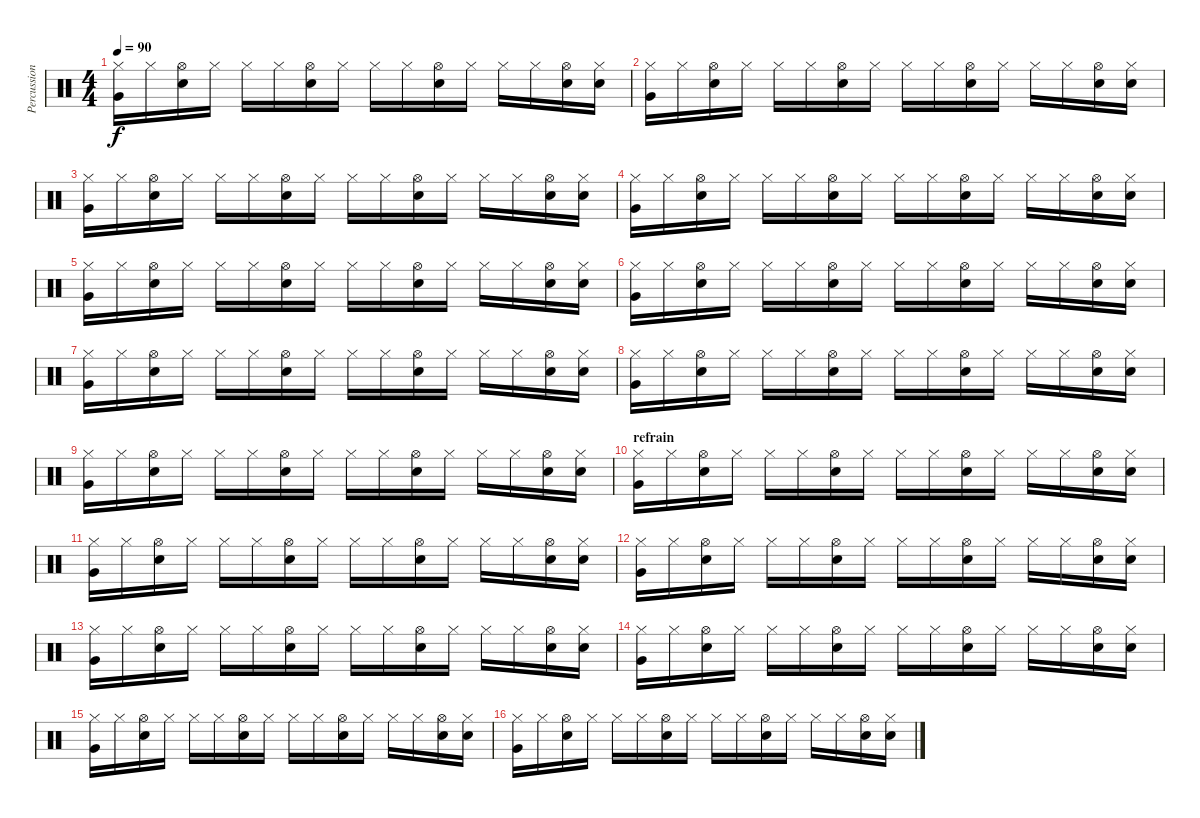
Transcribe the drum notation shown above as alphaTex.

\track ("Percussions" "Percussion") {instrument percussion}
\staff {score}
\articulation defaults
\ts (4 4)
\tempo 90
\clef neutral
\ks aminor
("Hi-Hat (closed)" "Very Low Tom (hit)").16{dy f} "Hi-Hat (closed)".16 ("Snare (hit) 2" "Hi-Hat (open)").16 "Hi-Hat (closed)".16 "Hi-Hat (closed)".16 "Hi-Hat (closed)".16 ("Snare (hit) 2" "Hi-Hat (open)").16 "Hi-Hat (closed)".16 "Hi-Hat (closed)".16 "Hi-Hat (closed)".16 ("Snare (hit) 2" "Hi-Hat (open)").16 "Hi-Hat (closed)".16 "Hi-Hat (closed)".16 "Hi-Hat (closed)".16 ("Snare (hit) 2" "Hi-Hat (open)").16 ("Snare (hit) 2" "Hi-Hat (closed)").16 |
("Hi-Hat (closed)" "Very Low Tom (hit)").16 "Hi-Hat (closed)".16 ("Snare (hit) 2" "Hi-Hat (open)").16 "Hi-Hat (closed)".16 "Hi-Hat (closed)".16 "Hi-Hat (closed)".16 ("Snare (hit) 2" "Hi-Hat (open)").16 "Hi-Hat (closed)".16 "Hi-Hat (closed)".16 "Hi-Hat (closed)".16 ("Snare (hit) 2" "Hi-Hat (open)").16 "Hi-Hat (closed)".16 "Hi-Hat (closed)".16 "Hi-Hat (closed)".16 ("Snare (hit) 2" "Hi-Hat (open)").16 ("Snare (hit) 2" "Hi-Hat (closed)").16 |
("Hi-Hat (closed)" "Very Low Tom (hit)").16 "Hi-Hat (closed)".16 ("Snare (hit) 2" "Hi-Hat (open)").16 "Hi-Hat (closed)".16 "Hi-Hat (closed)".16 "Hi-Hat (closed)".16 ("Snare (hit) 2" "Hi-Hat (open)").16 "Hi-Hat (closed)".16 "Hi-Hat (closed)".16 "Hi-Hat (closed)".16 ("Snare (hit) 2" "Hi-Hat (open)").16 "Hi-Hat (closed)".16 "Hi-Hat (closed)".16 "Hi-Hat (closed)".16 ("Snare (hit) 2" "Hi-Hat (open)").16 ("Snare (hit) 2" "Hi-Hat (closed)").16 |
("Hi-Hat (closed)" "Very Low Tom (hit)").16 "Hi-Hat (closed)".16 ("Snare (hit) 2" "Hi-Hat (open)").16 "Hi-Hat (closed)".16 "Hi-Hat (closed)".16 "Hi-Hat (closed)".16 ("Snare (hit) 2" "Hi-Hat (open)").16 "Hi-Hat (closed)".16 "Hi-Hat (closed)".16 "Hi-Hat (closed)".16 ("Snare (hit) 2" "Hi-Hat (open)").16 "Hi-Hat (closed)".16 "Hi-Hat (closed)".16 "Hi-Hat (closed)".16 ("Snare (hit) 2" "Hi-Hat (open)").16 ("Snare (hit) 2" "Hi-Hat (closed)").16 |
("Hi-Hat (closed)" "Very Low Tom (hit)").16 "Hi-Hat (closed)".16 ("Snare (hit) 2" "Hi-Hat (open)").16 "Hi-Hat (closed)".16 "Hi-Hat (closed)".16 "Hi-Hat (closed)".16 ("Snare (hit) 2" "Hi-Hat (open)").16 "Hi-Hat (closed)".16 "Hi-Hat (closed)".16 "Hi-Hat (closed)".16 ("Snare (hit) 2" "Hi-Hat (open)").16 "Hi-Hat (closed)".16 "Hi-Hat (closed)".16 "Hi-Hat (closed)".16 ("Snare (hit) 2" "Hi-Hat (open)").16 ("Snare (hit) 2" "Hi-Hat (closed)").16 |
("Hi-Hat (closed)" "Very Low Tom (hit)").16 "Hi-Hat (closed)".16 ("Snare (hit) 2" "Hi-Hat (open)").16 "Hi-Hat (closed)".16 "Hi-Hat (closed)".16 "Hi-Hat (closed)".16 ("Snare (hit) 2" "Hi-Hat (open)").16 "Hi-Hat (closed)".16 "Hi-Hat (closed)".16 "Hi-Hat (closed)".16 ("Snare (hit) 2" "Hi-Hat (open)").16 "Hi-Hat (closed)".16 "Hi-Hat (closed)".16 "Hi-Hat (closed)".16 ("Snare (hit) 2" "Hi-Hat (open)").16 ("Snare (hit) 2" "Hi-Hat (closed)").16 |
("Hi-Hat (closed)" "Very Low Tom (hit)").16 "Hi-Hat (closed)".16 ("Snare (hit) 2" "Hi-Hat (open)").16 "Hi-Hat (closed)".16 "Hi-Hat (closed)".16 "Hi-Hat (closed)".16 ("Snare (hit) 2" "Hi-Hat (open)").16 "Hi-Hat (closed)".16 "Hi-Hat (closed)".16 "Hi-Hat (closed)".16 ("Snare (hit) 2" "Hi-Hat (open)").16 "Hi-Hat (closed)".16 "Hi-Hat (closed)".16 "Hi-Hat (closed)".16 ("Snare (hit) 2" "Hi-Hat (open)").16 ("Snare (hit) 2" "Hi-Hat (closed)").16 |
("Hi-Hat (closed)" "Very Low Tom (hit)").16 "Hi-Hat (closed)".16 ("Snare (hit) 2" "Hi-Hat (open)").16 "Hi-Hat (closed)".16 "Hi-Hat (closed)".16 "Hi-Hat (closed)".16 ("Snare (hit) 2" "Hi-Hat (open)").16 "Hi-Hat (closed)".16 "Hi-Hat (closed)".16 "Hi-Hat (closed)".16 ("Snare (hit) 2" "Hi-Hat (open)").16 "Hi-Hat (closed)".16 "Hi-Hat (closed)".16 "Hi-Hat (closed)".16 ("Snare (hit) 2" "Hi-Hat (open)").16 ("Snare (hit) 2" "Hi-Hat (closed)").16 |
("Hi-Hat (closed)" "Very Low Tom (hit)").16 "Hi-Hat (closed)".16 ("Snare (hit) 2" "Hi-Hat (open)").16 "Hi-Hat (closed)".16 "Hi-Hat (closed)".16 "Hi-Hat (closed)".16 ("Snare (hit) 2" "Hi-Hat (open)").16 "Hi-Hat (closed)".16 "Hi-Hat (closed)".16 "Hi-Hat (closed)".16 ("Snare (hit) 2" "Hi-Hat (open)").16 "Hi-Hat (closed)".16 "Hi-Hat (closed)".16 "Hi-Hat (closed)".16 ("Snare (hit) 2" "Hi-Hat (open)").16 ("Snare (hit) 2" "Hi-Hat (closed)").16 |
\section ("" "refrain")
("Hi-Hat (closed)" "Very Low Tom (hit)").16 "Hi-Hat (closed)".16 ("Snare (hit) 2" "Hi-Hat (open)").16 "Hi-Hat (closed)".16 "Hi-Hat (closed)".16 "Hi-Hat (closed)".16 ("Snare (hit) 2" "Hi-Hat (open)").16 "Hi-Hat (closed)".16 "Hi-Hat (closed)".16 "Hi-Hat (closed)".16 ("Snare (hit) 2" "Hi-Hat (open)").16 "Hi-Hat (closed)".16 "Hi-Hat (closed)".16 "Hi-Hat (closed)".16 ("Snare (hit) 2" "Hi-Hat (open)").16 ("Snare (hit) 2" "Hi-Hat (closed)").16 |
("Hi-Hat (closed)" "Very Low Tom (hit)").16 "Hi-Hat (closed)".16 ("Snare (hit) 2" "Hi-Hat (open)").16 "Hi-Hat (closed)".16 "Hi-Hat (closed)".16 "Hi-Hat (closed)".16 ("Snare (hit) 2" "Hi-Hat (open)").16 "Hi-Hat (closed)".16 "Hi-Hat (closed)".16 "Hi-Hat (closed)".16 ("Snare (hit) 2" "Hi-Hat (open)").16 "Hi-Hat (closed)".16 "Hi-Hat (closed)".16 "Hi-Hat (closed)".16 ("Snare (hit) 2" "Hi-Hat (open)").16 ("Snare (hit) 2" "Hi-Hat (closed)").16 |
("Hi-Hat (closed)" "Very Low Tom (hit)").16 "Hi-Hat (closed)".16 ("Snare (hit) 2" "Hi-Hat (open)").16 "Hi-Hat (closed)".16 "Hi-Hat (closed)".16 "Hi-Hat (closed)".16 ("Snare (hit) 2" "Hi-Hat (open)").16 "Hi-Hat (closed)".16 "Hi-Hat (closed)".16 "Hi-Hat (closed)".16 ("Snare (hit) 2" "Hi-Hat (open)").16 "Hi-Hat (closed)".16 "Hi-Hat (closed)".16 "Hi-Hat (closed)".16 ("Snare (hit) 2" "Hi-Hat (open)").16 ("Snare (hit) 2" "Hi-Hat (closed)").16 |
("Hi-Hat (closed)" "Very Low Tom (hit)").16 "Hi-Hat (closed)".16 ("Snare (hit) 2" "Hi-Hat (open)").16 "Hi-Hat (closed)".16 "Hi-Hat (closed)".16 "Hi-Hat (closed)".16 ("Snare (hit) 2" "Hi-Hat (open)").16 "Hi-Hat (closed)".16 "Hi-Hat (closed)".16 "Hi-Hat (closed)".16 ("Snare (hit) 2" "Hi-Hat (open)").16 "Hi-Hat (closed)".16 "Hi-Hat (closed)".16 "Hi-Hat (closed)".16 ("Snare (hit) 2" "Hi-Hat (open)").16 ("Snare (hit) 2" "Hi-Hat (closed)").16 |
("Hi-Hat (closed)" "Very Low Tom (hit)").16 "Hi-Hat (closed)".16 ("Snare (hit) 2" "Hi-Hat (open)").16 "Hi-Hat (closed)".16 "Hi-Hat (closed)".16 "Hi-Hat (closed)".16 ("Snare (hit) 2" "Hi-Hat (open)").16 "Hi-Hat (closed)".16 "Hi-Hat (closed)".16 "Hi-Hat (closed)".16 ("Snare (hit) 2" "Hi-Hat (open)").16 "Hi-Hat (closed)".16 "Hi-Hat (closed)".16 "Hi-Hat (closed)".16 ("Snare (hit) 2" "Hi-Hat (open)").16 ("Snare (hit) 2" "Hi-Hat (closed)").16 |
("Hi-Hat (closed)" "Very Low Tom (hit)").16 "Hi-Hat (closed)".16 ("Snare (hit) 2" "Hi-Hat (open)").16 "Hi-Hat (closed)".16 "Hi-Hat (closed)".16 "Hi-Hat (closed)".16 ("Snare (hit) 2" "Hi-Hat (open)").16 "Hi-Hat (closed)".16 "Hi-Hat (closed)".16 "Hi-Hat (closed)".16 ("Snare (hit) 2" "Hi-Hat (open)").16 "Hi-Hat (closed)".16 "Hi-Hat (closed)".16 "Hi-Hat (closed)".16 ("Snare (hit) 2" "Hi-Hat (open)").16 ("Snare (hit) 2" "Hi-Hat (closed)").16 |
("Hi-Hat (closed)" "Very Low Tom (hit)").16 "Hi-Hat (closed)".16 ("Snare (hit) 2" "Hi-Hat (open)").16 "Hi-Hat (closed)".16 "Hi-Hat (closed)".16 "Hi-Hat (closed)".16 ("Snare (hit) 2" "Hi-Hat (open)").16 "Hi-Hat (closed)".16 "Hi-Hat (closed)".16 "Hi-Hat (closed)".16 ("Snare (hit) 2" "Hi-Hat (open)").16 "Hi-Hat (closed)".16 "Hi-Hat (closed)".16 "Hi-Hat (closed)".16 ("Snare (hit) 2" "Hi-Hat (open)").16 ("Snare (hit) 2" "Hi-Hat (closed)").16
